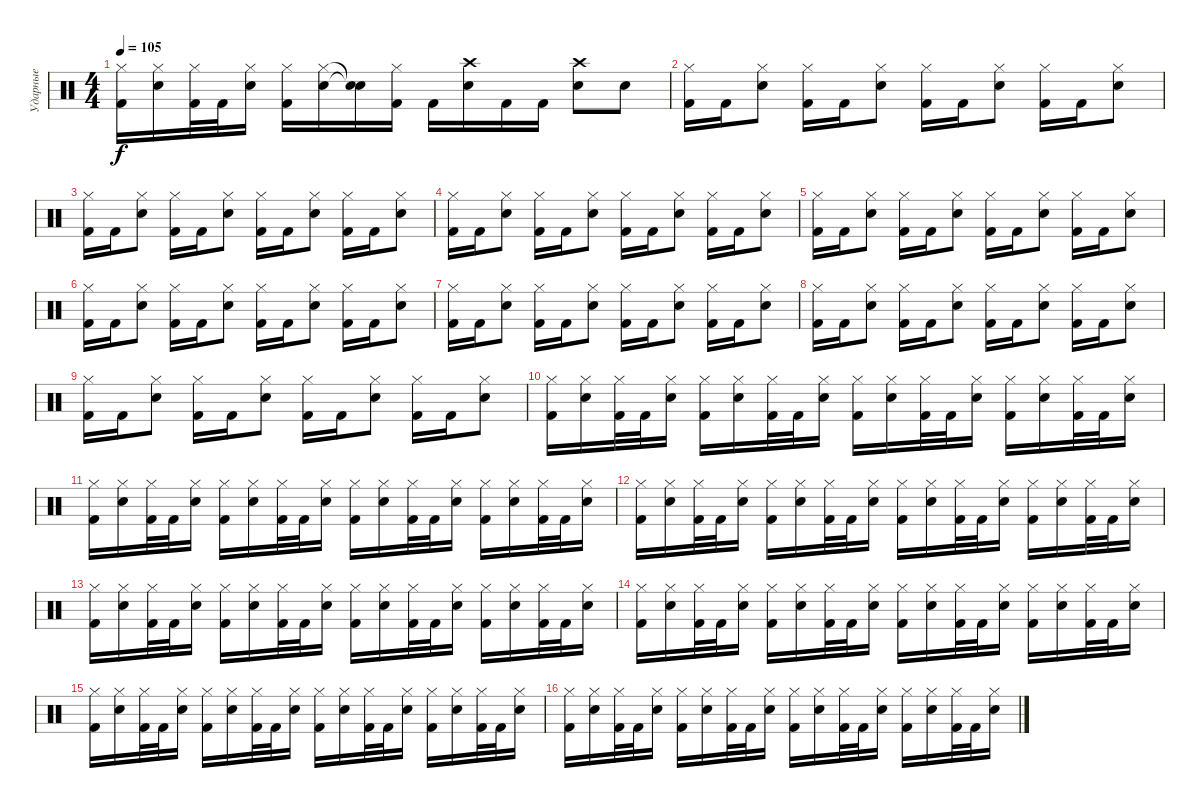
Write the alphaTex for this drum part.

\track ("Ударные" "Ударные") {instrument percussion}
\staff {score}
\articulation defaults
\ts (4 4)
\tempo 105
\clef neutral
\ks c
("Hi-Hat (closed)" "Kick (hit) 2").16{dy f} ("Hi-Hat (closed)" "Electric Snare (hit)").16 ("Hi-Hat (closed)" "Kick (hit) 2").32 "Kick (hit) 2".32 ("Hi-Hat (closed)" "Electric Snare (hit)").16 ("Hi-Hat (closed)" "Kick (hit) 2").16 ("Hi-Hat (closed)" "Electric Snare (hit)").16 ("Snare (hit)"{t} "Snare (hit)"{t}).16 ("Hi-Hat (closed)" "Kick (hit) 2").16 "Kick (hit) 2".16 ("Crash high (hit)" "Electric Snare (hit)").16 "Kick (hit) 2".16 "Kick (hit) 2".16 ("Crash high (hit)" "Electric Snare (hit)").8 "Electric Snare (hit)".8 |
("Hi-Hat (closed)" "Kick (hit) 2").16 "Kick (hit) 2".16 ("Hi-Hat (closed)" "Electric Snare (hit)").8 ("Hi-Hat (closed)" "Kick (hit) 2").16 "Kick (hit) 2".16 ("Hi-Hat (closed)" "Electric Snare (hit)").8 ("Hi-Hat (closed)" "Kick (hit) 2").16 "Kick (hit) 2".16 ("Hi-Hat (closed)" "Electric Snare (hit)").8 ("Hi-Hat (closed)" "Kick (hit) 2").16 "Kick (hit) 2".16 ("Hi-Hat (closed)" "Electric Snare (hit)").8 |
("Hi-Hat (closed)" "Kick (hit) 2").16 "Kick (hit) 2".16 ("Hi-Hat (closed)" "Electric Snare (hit)").8 ("Hi-Hat (closed)" "Kick (hit) 2").16 "Kick (hit) 2".16 ("Hi-Hat (closed)" "Electric Snare (hit)").8 ("Hi-Hat (closed)" "Kick (hit) 2").16 "Kick (hit) 2".16 ("Hi-Hat (closed)" "Electric Snare (hit)").8 ("Hi-Hat (closed)" "Kick (hit) 2").16 "Kick (hit) 2".16 ("Hi-Hat (closed)" "Electric Snare (hit)").8 |
("Hi-Hat (closed)" "Kick (hit) 2").16 "Kick (hit) 2".16 ("Hi-Hat (closed)" "Electric Snare (hit)").8 ("Hi-Hat (closed)" "Kick (hit) 2").16 "Kick (hit) 2".16 ("Hi-Hat (closed)" "Electric Snare (hit)").8 ("Hi-Hat (closed)" "Kick (hit) 2").16 "Kick (hit) 2".16 ("Hi-Hat (closed)" "Electric Snare (hit)").8 ("Hi-Hat (closed)" "Kick (hit) 2").16 "Kick (hit) 2".16 ("Hi-Hat (closed)" "Electric Snare (hit)").8 |
("Hi-Hat (closed)" "Kick (hit) 2").16 "Kick (hit) 2".16 ("Hi-Hat (closed)" "Electric Snare (hit)").8 ("Hi-Hat (closed)" "Kick (hit) 2").16 "Kick (hit) 2".16 ("Hi-Hat (closed)" "Electric Snare (hit)").8 ("Hi-Hat (closed)" "Kick (hit) 2").16 "Kick (hit) 2".16 ("Hi-Hat (closed)" "Electric Snare (hit)").8 ("Hi-Hat (closed)" "Kick (hit) 2").16 "Kick (hit) 2".16 ("Hi-Hat (closed)" "Electric Snare (hit)").8 |
("Hi-Hat (closed)" "Kick (hit) 2").16 "Kick (hit) 2".16 ("Hi-Hat (closed)" "Electric Snare (hit)").8 ("Hi-Hat (closed)" "Kick (hit) 2").16 "Kick (hit) 2".16 ("Hi-Hat (closed)" "Electric Snare (hit)").8 ("Hi-Hat (closed)" "Kick (hit) 2").16 "Kick (hit) 2".16 ("Hi-Hat (closed)" "Electric Snare (hit)").8 ("Hi-Hat (closed)" "Kick (hit) 2").16 "Kick (hit) 2".16 ("Hi-Hat (closed)" "Electric Snare (hit)").8 |
("Hi-Hat (closed)" "Kick (hit) 2").16 "Kick (hit) 2".16 ("Hi-Hat (closed)" "Electric Snare (hit)").8 ("Hi-Hat (closed)" "Kick (hit) 2").16 "Kick (hit) 2".16 ("Hi-Hat (closed)" "Electric Snare (hit)").8 ("Hi-Hat (closed)" "Kick (hit) 2").16 "Kick (hit) 2".16 ("Hi-Hat (closed)" "Electric Snare (hit)").8 ("Hi-Hat (closed)" "Kick (hit) 2").16 "Kick (hit) 2".16 ("Hi-Hat (closed)" "Electric Snare (hit)").8 |
("Hi-Hat (closed)" "Kick (hit) 2").16 "Kick (hit) 2".16 ("Hi-Hat (closed)" "Electric Snare (hit)").8 ("Hi-Hat (closed)" "Kick (hit) 2").16 "Kick (hit) 2".16 ("Hi-Hat (closed)" "Electric Snare (hit)").8 ("Hi-Hat (closed)" "Kick (hit) 2").16 "Kick (hit) 2".16 ("Hi-Hat (closed)" "Electric Snare (hit)").8 ("Hi-Hat (closed)" "Kick (hit) 2").16 "Kick (hit) 2".16 ("Hi-Hat (closed)" "Electric Snare (hit)").8 |
("Hi-Hat (closed)" "Kick (hit) 2").16 "Kick (hit) 2".16 ("Hi-Hat (closed)" "Electric Snare (hit)").8 ("Hi-Hat (closed)" "Kick (hit) 2").16 "Kick (hit) 2".16 ("Hi-Hat (closed)" "Electric Snare (hit)").8 ("Hi-Hat (closed)" "Kick (hit) 2").16 "Kick (hit) 2".16 ("Hi-Hat (closed)" "Electric Snare (hit)").8 ("Hi-Hat (closed)" "Kick (hit) 2").16 "Kick (hit) 2".16 ("Hi-Hat (closed)" "Electric Snare (hit)").8 |
("Hi-Hat (closed)" "Kick (hit) 2").16 ("Hi-Hat (closed)" "Electric Snare (hit)").16 ("Hi-Hat (closed)" "Kick (hit) 2").32 "Kick (hit) 2".32 ("Hi-Hat (closed)" "Electric Snare (hit)").16 ("Hi-Hat (closed)" "Kick (hit) 2").16 ("Hi-Hat (closed)" "Electric Snare (hit)").16 ("Hi-Hat (closed)" "Kick (hit) 2").32 "Kick (hit) 2".32 ("Hi-Hat (closed)" "Electric Snare (hit)").16 ("Hi-Hat (closed)" "Kick (hit) 2").16 ("Hi-Hat (closed)" "Electric Snare (hit)").16 ("Hi-Hat (closed)" "Kick (hit) 2").32 "Kick (hit) 2".32 ("Hi-Hat (closed)" "Electric Snare (hit)").16 ("Hi-Hat (closed)" "Kick (hit) 2").16 ("Hi-Hat (closed)" "Electric Snare (hit)").16 ("Hi-Hat (closed)" "Kick (hit) 2").32 "Kick (hit) 2".32 ("Hi-Hat (closed)" "Electric Snare (hit)").16 |
("Hi-Hat (closed)" "Kick (hit) 2").16 ("Hi-Hat (closed)" "Electric Snare (hit)").16 ("Hi-Hat (closed)" "Kick (hit) 2").32 "Kick (hit) 2".32 ("Hi-Hat (closed)" "Electric Snare (hit)").16 ("Hi-Hat (closed)" "Kick (hit) 2").16 ("Hi-Hat (closed)" "Electric Snare (hit)").16 ("Hi-Hat (closed)" "Kick (hit) 2").32 "Kick (hit) 2".32 ("Hi-Hat (closed)" "Electric Snare (hit)").16 ("Hi-Hat (closed)" "Kick (hit) 2").16 ("Hi-Hat (closed)" "Electric Snare (hit)").16 ("Hi-Hat (closed)" "Kick (hit) 2").32 "Kick (hit) 2".32 ("Hi-Hat (closed)" "Electric Snare (hit)").16 ("Hi-Hat (closed)" "Kick (hit) 2").16 ("Hi-Hat (closed)" "Electric Snare (hit)").16 ("Hi-Hat (closed)" "Kick (hit) 2").32 "Kick (hit) 2".32 ("Hi-Hat (closed)" "Electric Snare (hit)").16 |
("Hi-Hat (closed)" "Kick (hit) 2").16 ("Hi-Hat (closed)" "Electric Snare (hit)").16 ("Hi-Hat (closed)" "Kick (hit) 2").32 "Kick (hit) 2".32 ("Hi-Hat (closed)" "Electric Snare (hit)").16 ("Hi-Hat (closed)" "Kick (hit) 2").16 ("Hi-Hat (closed)" "Electric Snare (hit)").16 ("Hi-Hat (closed)" "Kick (hit) 2").32 "Kick (hit) 2".32 ("Hi-Hat (closed)" "Electric Snare (hit)").16 ("Hi-Hat (closed)" "Kick (hit) 2").16 ("Hi-Hat (closed)" "Electric Snare (hit)").16 ("Hi-Hat (closed)" "Kick (hit) 2").32 "Kick (hit) 2".32 ("Hi-Hat (closed)" "Electric Snare (hit)").16 ("Hi-Hat (closed)" "Kick (hit) 2").16 ("Hi-Hat (closed)" "Electric Snare (hit)").16 ("Hi-Hat (closed)" "Kick (hit) 2").32 "Kick (hit) 2".32 ("Hi-Hat (closed)" "Electric Snare (hit)").16 |
("Hi-Hat (closed)" "Kick (hit) 2").16 ("Hi-Hat (closed)" "Electric Snare (hit)").16 ("Hi-Hat (closed)" "Kick (hit) 2").32 "Kick (hit) 2".32 ("Hi-Hat (closed)" "Electric Snare (hit)").16 ("Hi-Hat (closed)" "Kick (hit) 2").16 ("Hi-Hat (closed)" "Electric Snare (hit)").16 ("Hi-Hat (closed)" "Kick (hit) 2").32 "Kick (hit) 2".32 ("Hi-Hat (closed)" "Electric Snare (hit)").16 ("Hi-Hat (closed)" "Kick (hit) 2").16 ("Hi-Hat (closed)" "Electric Snare (hit)").16 ("Hi-Hat (closed)" "Kick (hit) 2").32 "Kick (hit) 2".32 ("Hi-Hat (closed)" "Electric Snare (hit)").16 ("Hi-Hat (closed)" "Kick (hit) 2").16 ("Hi-Hat (closed)" "Electric Snare (hit)").16 ("Hi-Hat (closed)" "Kick (hit) 2").32 "Kick (hit) 2".32 ("Hi-Hat (closed)" "Electric Snare (hit)").16 |
("Hi-Hat (closed)" "Kick (hit) 2").16 ("Hi-Hat (closed)" "Electric Snare (hit)").16 ("Hi-Hat (closed)" "Kick (hit) 2").32 "Kick (hit) 2".32 ("Hi-Hat (closed)" "Electric Snare (hit)").16 ("Hi-Hat (closed)" "Kick (hit) 2").16 ("Hi-Hat (closed)" "Electric Snare (hit)").16 ("Hi-Hat (closed)" "Kick (hit) 2").32 "Kick (hit) 2".32 ("Hi-Hat (closed)" "Electric Snare (hit)").16 ("Hi-Hat (closed)" "Kick (hit) 2").16 ("Hi-Hat (closed)" "Electric Snare (hit)").16 ("Hi-Hat (closed)" "Kick (hit) 2").32 "Kick (hit) 2".32 ("Hi-Hat (closed)" "Electric Snare (hit)").16 ("Hi-Hat (closed)" "Kick (hit) 2").16 ("Hi-Hat (closed)" "Electric Snare (hit)").16 ("Hi-Hat (closed)" "Kick (hit) 2").32 "Kick (hit) 2".32 ("Hi-Hat (closed)" "Electric Snare (hit)").16 |
("Hi-Hat (closed)" "Kick (hit) 2").16 ("Hi-Hat (closed)" "Electric Snare (hit)").16 ("Hi-Hat (closed)" "Kick (hit) 2").32 "Kick (hit) 2".32 ("Hi-Hat (closed)" "Electric Snare (hit)").16 ("Hi-Hat (closed)" "Kick (hit) 2").16 ("Hi-Hat (closed)" "Electric Snare (hit)").16 ("Hi-Hat (closed)" "Kick (hit) 2").32 "Kick (hit) 2".32 ("Hi-Hat (closed)" "Electric Snare (hit)").16 ("Hi-Hat (closed)" "Kick (hit) 2").16 ("Hi-Hat (closed)" "Electric Snare (hit)").16 ("Hi-Hat (closed)" "Kick (hit) 2").32 "Kick (hit) 2".32 ("Hi-Hat (closed)" "Electric Snare (hit)").16 ("Hi-Hat (closed)" "Kick (hit) 2").16 ("Hi-Hat (closed)" "Electric Snare (hit)").16 ("Hi-Hat (closed)" "Kick (hit) 2").32 "Kick (hit) 2".32 ("Hi-Hat (closed)" "Electric Snare (hit)").16 |
("Hi-Hat (closed)" "Kick (hit) 2").16 ("Hi-Hat (closed)" "Electric Snare (hit)").16 ("Hi-Hat (closed)" "Kick (hit) 2").32 "Kick (hit) 2".32 ("Hi-Hat (closed)" "Electric Snare (hit)").16 ("Hi-Hat (closed)" "Kick (hit) 2").16 ("Hi-Hat (closed)" "Electric Snare (hit)").16 ("Hi-Hat (closed)" "Kick (hit) 2").32 "Kick (hit) 2".32 ("Hi-Hat (closed)" "Electric Snare (hit)").16 ("Hi-Hat (closed)" "Kick (hit) 2").16 ("Hi-Hat (closed)" "Electric Snare (hit)").16 ("Hi-Hat (closed)" "Kick (hit) 2").32 "Kick (hit) 2".32 ("Hi-Hat (closed)" "Electric Snare (hit)").16 ("Hi-Hat (closed)" "Kick (hit) 2").16 ("Hi-Hat (closed)" "Electric Snare (hit)").16 ("Hi-Hat (closed)" "Kick (hit) 2").32 "Kick (hit) 2".32 ("Hi-Hat (closed)" "Electric Snare (hit)").16
